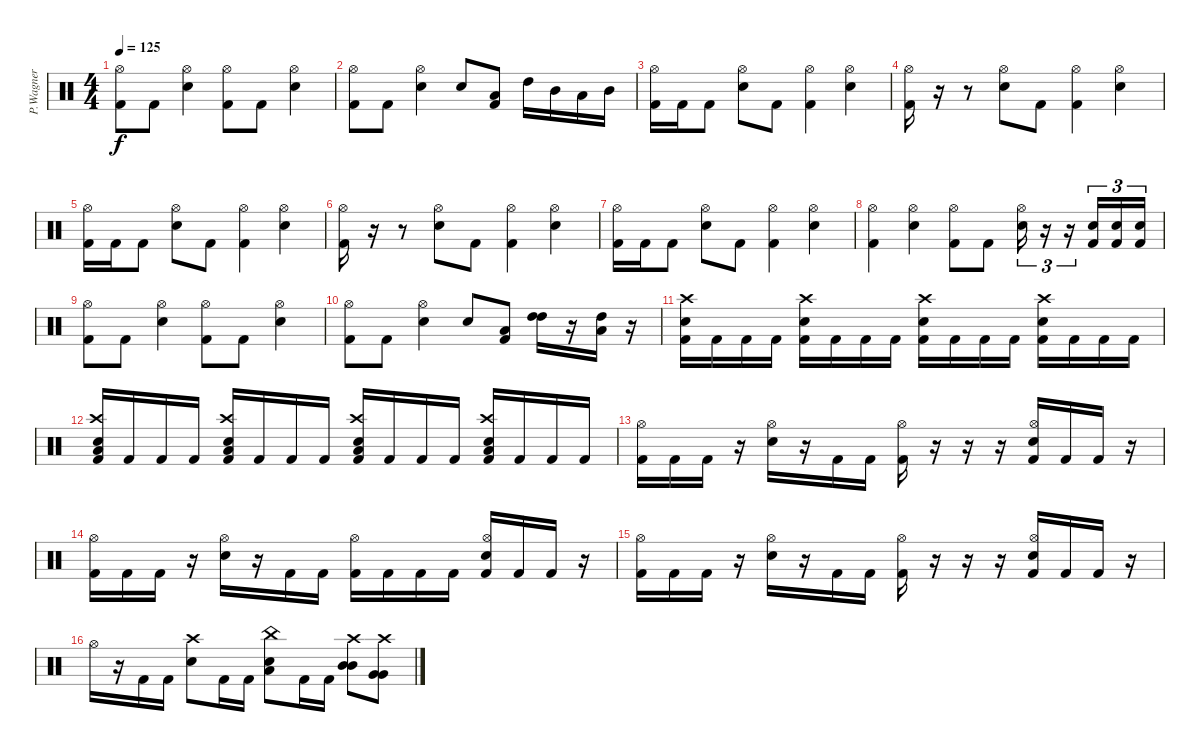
\track ("P.Wagner" "P.Wagner") {instrument percussion}
\staff {score}
\articulation defaults
\ts (4 4)
\tempo 125
\clef neutral
\ks c
("Kick (hit) 2" "Hi-Hat (open)").8{dy f} "Kick (hit) 2".8 ("Hi-Hat (open)" "Electric Snare (hit)").4 ("Kick (hit) 2" "Hi-Hat (open)").8 "Kick (hit) 2".8 ("Hi-Hat (open)" "Electric Snare (hit)").4 |
("Kick (hit) 2" "Hi-Hat (open)").8 "Kick (hit) 2".8 ("Hi-Hat (open)" "Electric Snare (hit)").4 "Electric Snare (hit)".8 ("Low Tom (hit)" "Kick (hit) 2").8 "High Tom (hit)".16 "Mid Tom (hit)".16 "Low Tom (hit)".16 "Mid Tom (hit)".16 |
("Kick (hit) 2" "Hi-Hat (open)").16 "Kick (hit) 2".16 "Kick (hit) 2".8 ("Electric Snare (hit)" "Hi-Hat (open)").8 "Kick (hit) 2".8 ("Kick (hit) 2" "Hi-Hat (open)").4 ("Hi-Hat (open)" "Electric Snare (hit)").4 |
("Kick (hit) 2" "Hi-Hat (open)").16 r.16 r.8 ("Electric Snare (hit)" "Hi-Hat (open)").8 "Kick (hit) 2".8 ("Kick (hit) 2" "Hi-Hat (open)").4 ("Hi-Hat (open)" "Electric Snare (hit)").4 |
("Kick (hit) 2" "Hi-Hat (open)").16 "Kick (hit) 2".16 "Kick (hit) 2".8 ("Electric Snare (hit)" "Hi-Hat (open)").8 "Kick (hit) 2".8 ("Kick (hit) 2" "Hi-Hat (open)").4 ("Hi-Hat (open)" "Electric Snare (hit)").4 |
("Kick (hit) 2" "Hi-Hat (open)").16 r.16 r.8 ("Electric Snare (hit)" "Hi-Hat (open)").8 "Kick (hit) 2".8 ("Kick (hit) 2" "Hi-Hat (open)").4 ("Hi-Hat (open)" "Electric Snare (hit)").4 |
("Kick (hit) 2" "Hi-Hat (open)").16 "Kick (hit) 2".16 "Kick (hit) 2".8 ("Electric Snare (hit)" "Hi-Hat (open)").8 "Kick (hit) 2".8 ("Kick (hit) 2" "Hi-Hat (open)").4 ("Hi-Hat (open)" "Electric Snare (hit)").4 |
("Kick (hit) 2" "Hi-Hat (open)").4 ("Electric Snare (hit)" "Hi-Hat (open)").4 ("Kick (hit) 2" "Hi-Hat (open)").8 "Kick (hit) 2".8 ("Electric Snare (hit)" "Hi-Hat (open)").16{tu (3 2)} r.16{tu (3 2)} r.16{tu (3 2)} ("Electric Snare (hit)" "Kick (hit) 2").16{tu (3 2)} ("Electric Snare (hit)" "Kick (hit) 2").16{tu (3 2)} ("Electric Snare (hit)" "Kick (hit) 2").16{tu (3 2)} |
("Kick (hit) 2" "Hi-Hat (open)").8 "Kick (hit) 2".8 ("Hi-Hat (open)" "Electric Snare (hit)").4 ("Kick (hit) 2" "Hi-Hat (open)").8 "Kick (hit) 2".8 ("Hi-Hat (open)" "Electric Snare (hit)").4 |
("Kick (hit) 2" "Hi-Hat (open)").8 "Kick (hit) 2".8 ("Hi-Hat (open)" "Electric Snare (hit)").4 "Electric Snare (hit)".8 ("Low Tom (hit)" "Kick (hit) 2").8 ("High Tom (hit)" "High Tom (hit)").16 r.16 ("Low Tom (hit)" "High Tom (hit)").16 r.16 |
("Kick (hit) 2" "Electric Snare (hit)" "Crash high (hit)").16 "Kick (hit) 2".16 "Kick (hit) 2".16 "Kick (hit) 2".16 ("Kick (hit) 2" "Electric Snare (hit)" "Crash high (hit)").16 "Kick (hit) 2".16 "Kick (hit) 2".16 "Kick (hit) 2".16 ("Kick (hit) 2" "Electric Snare (hit)" "Crash high (hit)").16 "Kick (hit) 2".16 "Kick (hit) 2".16 "Kick (hit) 2".16 ("Kick (hit) 2" "Electric Snare (hit)" "Crash high (hit)").16 "Kick (hit) 2".16 "Kick (hit) 2".16 "Kick (hit) 2".16 |
("Kick (hit) 2" "Electric Snare (hit)" "Low Floor Tom (hit)" "Crash high (hit)").16 "Kick (hit) 2".16 "Kick (hit) 2".16 "Kick (hit) 2".16 ("Kick (hit) 2" "Electric Snare (hit)" "Low Floor Tom (hit)" "Crash high (hit)").16 "Kick (hit) 2".16 "Kick (hit) 2".16 "Kick (hit) 2".16 ("Kick (hit) 2" "Electric Snare (hit)" "Low Floor Tom (hit)" "Crash high (hit)").16 "Kick (hit) 2".16 "Kick (hit) 2".16 "Kick (hit) 2".16 ("Kick (hit) 2" "Electric Snare (hit)" "Low Floor Tom (hit)" "Crash high (hit)").16 "Kick (hit) 2".16 "Kick (hit) 2".16 "Kick (hit) 2".16 |
("Kick (hit) 2" "Hi-Hat (open)").16 "Kick (hit) 2".16 "Kick (hit) 2".16 r.16 ("Electric Snare (hit)" "Hi-Hat (open)").16 r.16 "Kick (hit) 2".16 "Kick (hit) 2".16 ("Kick (hit) 2" "Hi-Hat (open)").16 r.16 r.16 r.16 ("Kick (hit) 2" "Electric Snare (hit)" "Hi-Hat (open)").16 "Kick (hit) 2".16 "Kick (hit) 2".16 r.16 |
("Kick (hit) 2" "Hi-Hat (open)").16 "Kick (hit) 2".16 "Kick (hit) 2".16 r.16 ("Electric Snare (hit)" "Hi-Hat (open)").16 r.16 "Kick (hit) 2".16 "Kick (hit) 2".16 ("Kick (hit) 2" "Hi-Hat (open)").16 "Kick (hit) 2".16 "Kick (hit) 2".16 "Kick (hit) 2".16 ("Kick (hit) 2" "Electric Snare (hit)" "Hi-Hat (open)").16 "Kick (hit) 2".16 "Kick (hit) 2".16 r.16 |
("Kick (hit) 2" "Hi-Hat (open)").16 "Kick (hit) 2".16 "Kick (hit) 2".16 r.16 ("Electric Snare (hit)" "Hi-Hat (open)").16 r.16 "Kick (hit) 2".16 "Kick (hit) 2".16 ("Kick (hit) 2" "Hi-Hat (open)").16 r.16 r.16 r.16 ("Kick (hit) 2" "Electric Snare (hit)" "Hi-Hat (open)").16 "Kick (hit) 2".16 "Kick (hit) 2".16 r.16 |
"Hi-Hat (open)".16 r.16 "Kick (hit) 2".16 "Kick (hit) 2".16 ("Electric Snare (hit)" "Crash high (hit)").8 "Kick (hit) 2".16 "Kick (hit) 2".16 ("Low Tom (hit)" "Electric Snare (hit)" "China (hit)").8 "Kick (hit) 2".16 "Kick (hit) 2".16 ("Mid Tom (hit)" "Mid Tom (hit)" "Crash high (hit)").8 ("Very Low Tom (hit)" "Very Low Tom (hit)" "Crash high (hit)").8
